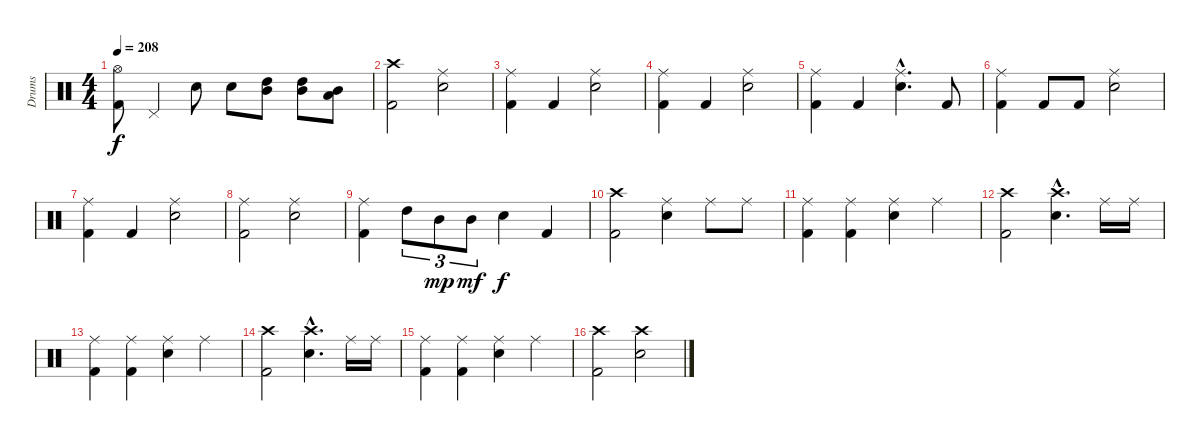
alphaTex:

\track ("Drums" "Drums") {instrument percussion}
\staff {score}
\articulation defaults
\ts (4 4)
\tempo 208
\clef neutral
\ks c
("Hi-Hat (open)" "Kick (hit) 2").8{dy f} "Pedal Hi-Hat (hit)".4 "Electric Snare (hit)".8 "Electric Snare (hit)".8 ("High Tom (hit)" "Mid Tom (hit)").8 ("High Tom (hit)" "Mid Tom (hit)").8 ("Mid Tom (hit)" "Low Tom (hit)").8 |
("Crash high (hit)" "Kick (hit) 2").2 ("Ride (middle)" "Electric Snare (hit)").2 |
("Ride (middle)" "Kick (hit) 2").4 "Kick (hit) 2".4 ("Ride (middle)" "Electric Snare (hit)").2 |
("Ride (middle)" "Kick (hit) 2").4 "Kick (hit) 2".4 ("Ride (middle)" "Electric Snare (hit)").2 |
("Ride (middle)" "Kick (hit) 2").4 "Kick (hit) 2".4 ("Ride (middle)"{hac} "Electric Snare (hit)"{hac}).4{d} "Kick (hit) 2".8 |
("Ride (middle)" "Kick (hit) 2").4 "Kick (hit) 2".8 "Kick (hit) 2".8 ("Ride (middle)" "Electric Snare (hit)").2 |
("Ride (middle)" "Kick (hit) 2").4 "Kick (hit) 2".4 ("Ride (middle)" "Electric Snare (hit)").2 |
("Ride (middle)" "Kick (hit) 2").2 ("Ride (middle)" "Electric Snare (hit)").2 |
("Ride (middle)" "Kick (hit) 2").4 "High Tom (hit)".8{tu (3 2)} "Mid Tom (hit)".8{tu (3 2) dy mp} "Mid Tom (hit)".8{tu (3 2) dy mf} "Electric Snare (hit)".4{dy f} "Kick (hit) 2".4 |
("Crash high (hit)" "Kick (hit) 2").2 ("Ride (middle)" "Electric Snare (hit)").4 "Ride (middle)".8 "Ride (middle)".8 |
("Ride (middle)" "Kick (hit) 2").4 ("Ride (middle)" "Kick (hit) 2").4 ("Ride (middle)" "Electric Snare (hit)").4 "Ride (middle)".4 |
("Crash high (hit)" "Kick (hit) 2").2 ("Crash high (hit)"{hac} "Electric Snare (hit)"{hac}).4{d} "Ride (middle)".16 "Ride (middle)".16 |
("Ride (middle)" "Kick (hit) 2").4 ("Ride (middle)" "Kick (hit) 2").4 ("Ride (middle)" "Electric Snare (hit)").4 "Ride (middle)".4 |
("Crash high (hit)" "Kick (hit) 2").2 ("Crash high (hit)"{hac} "Electric Snare (hit)"{hac}).4{d} "Ride (middle)".16 "Ride (middle)".16 |
("Ride (middle)" "Kick (hit) 2").4 ("Ride (middle)" "Kick (hit) 2").4 ("Ride (middle)" "Electric Snare (hit)").4 "Ride (middle)".4 |
("Crash high (hit)" "Kick (hit) 2").2 ("Crash high (hit)" "Electric Snare (hit)").2
